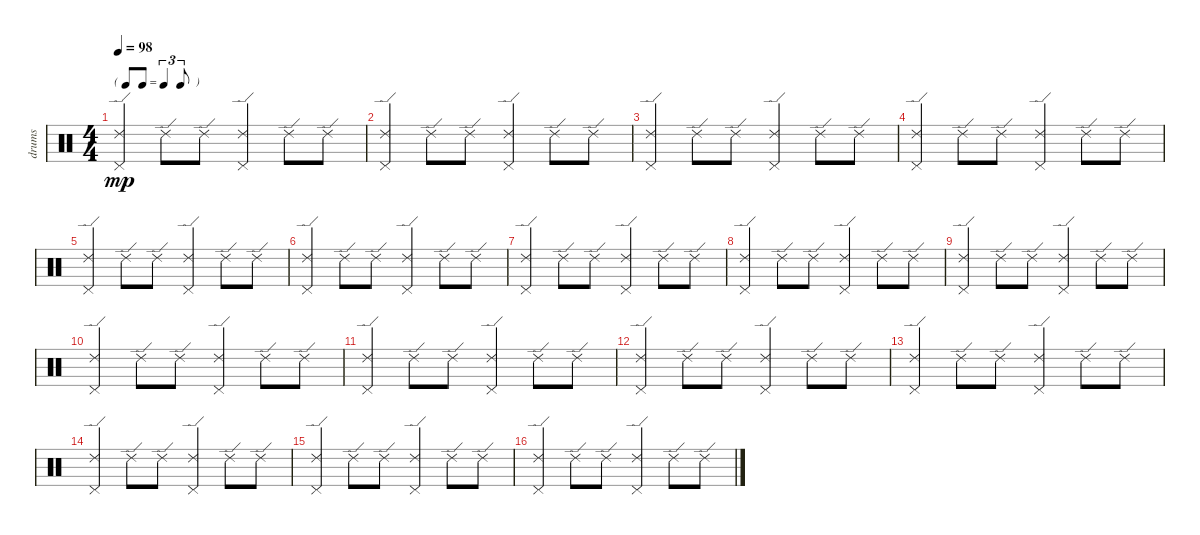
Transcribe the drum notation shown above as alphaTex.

\track ("drums" "drums") {instrument percussion}
\staff {score}
\articulation defaults
\ts (4 4)
\tf triplet8th
\tempo 98
\clef neutral
\ks c
("Pedal Hi-Hat (hit)" "Ride (edge) 2").4{dy mp} "Ride (edge) 2".8 "Ride (edge) 2".8 ("Pedal Hi-Hat (hit)" "Ride (edge) 2").4 "Ride (edge) 2".8 "Ride (edge) 2".8 |
("Pedal Hi-Hat (hit)" "Ride (edge) 2").4 "Ride (edge) 2".8 "Ride (edge) 2".8 ("Pedal Hi-Hat (hit)" "Ride (edge) 2").4 "Ride (edge) 2".8 "Ride (edge) 2".8 |
("Pedal Hi-Hat (hit)" "Ride (edge) 2").4 "Ride (edge) 2".8 "Ride (edge) 2".8 ("Pedal Hi-Hat (hit)" "Ride (edge) 2").4 "Ride (edge) 2".8 "Ride (edge) 2".8 |
("Pedal Hi-Hat (hit)" "Ride (edge) 2").4 "Ride (edge) 2".8 "Ride (edge) 2".8 ("Pedal Hi-Hat (hit)" "Ride (edge) 2").4 "Ride (edge) 2".8 "Ride (edge) 2".8 |
("Pedal Hi-Hat (hit)" "Ride (edge) 2").4 "Ride (edge) 2".8 "Ride (edge) 2".8 ("Pedal Hi-Hat (hit)" "Ride (edge) 2").4 "Ride (edge) 2".8 "Ride (edge) 2".8 |
("Pedal Hi-Hat (hit)" "Ride (edge) 2").4 "Ride (edge) 2".8 "Ride (edge) 2".8 ("Pedal Hi-Hat (hit)" "Ride (edge) 2").4 "Ride (edge) 2".8 "Ride (edge) 2".8 |
("Pedal Hi-Hat (hit)" "Ride (edge) 2").4 "Ride (edge) 2".8 "Ride (edge) 2".8 ("Pedal Hi-Hat (hit)" "Ride (edge) 2").4 "Ride (edge) 2".8 "Ride (edge) 2".8 |
("Pedal Hi-Hat (hit)" "Ride (edge) 2").4 "Ride (edge) 2".8 "Ride (edge) 2".8 ("Pedal Hi-Hat (hit)" "Ride (edge) 2").4 "Ride (edge) 2".8 "Ride (edge) 2".8 |
("Pedal Hi-Hat (hit)" "Ride (edge) 2").4 "Ride (edge) 2".8 "Ride (edge) 2".8 ("Pedal Hi-Hat (hit)" "Ride (edge) 2").4 "Ride (edge) 2".8 "Ride (edge) 2".8 |
("Pedal Hi-Hat (hit)" "Ride (edge) 2").4 "Ride (edge) 2".8 "Ride (edge) 2".8 ("Pedal Hi-Hat (hit)" "Ride (edge) 2").4 "Ride (edge) 2".8 "Ride (edge) 2".8 |
("Pedal Hi-Hat (hit)" "Ride (edge) 2").4 "Ride (edge) 2".8 "Ride (edge) 2".8 ("Pedal Hi-Hat (hit)" "Ride (edge) 2").4 "Ride (edge) 2".8 "Ride (edge) 2".8 |
("Pedal Hi-Hat (hit)" "Ride (edge) 2").4 "Ride (edge) 2".8 "Ride (edge) 2".8 ("Pedal Hi-Hat (hit)" "Ride (edge) 2").4 "Ride (edge) 2".8 "Ride (edge) 2".8 |
("Pedal Hi-Hat (hit)" "Ride (edge) 2").4 "Ride (edge) 2".8 "Ride (edge) 2".8 ("Pedal Hi-Hat (hit)" "Ride (edge) 2").4 "Ride (edge) 2".8 "Ride (edge) 2".8 |
("Pedal Hi-Hat (hit)" "Ride (edge) 2").4 "Ride (edge) 2".8 "Ride (edge) 2".8 ("Pedal Hi-Hat (hit)" "Ride (edge) 2").4 "Ride (edge) 2".8 "Ride (edge) 2".8 |
("Pedal Hi-Hat (hit)" "Ride (edge) 2").4 "Ride (edge) 2".8 "Ride (edge) 2".8 ("Pedal Hi-Hat (hit)" "Ride (edge) 2").4 "Ride (edge) 2".8 "Ride (edge) 2".8 |
("Pedal Hi-Hat (hit)" "Ride (edge) 2").4 "Ride (edge) 2".8 "Ride (edge) 2".8 ("Pedal Hi-Hat (hit)" "Ride (edge) 2").4 "Ride (edge) 2".8 "Ride (edge) 2".8
